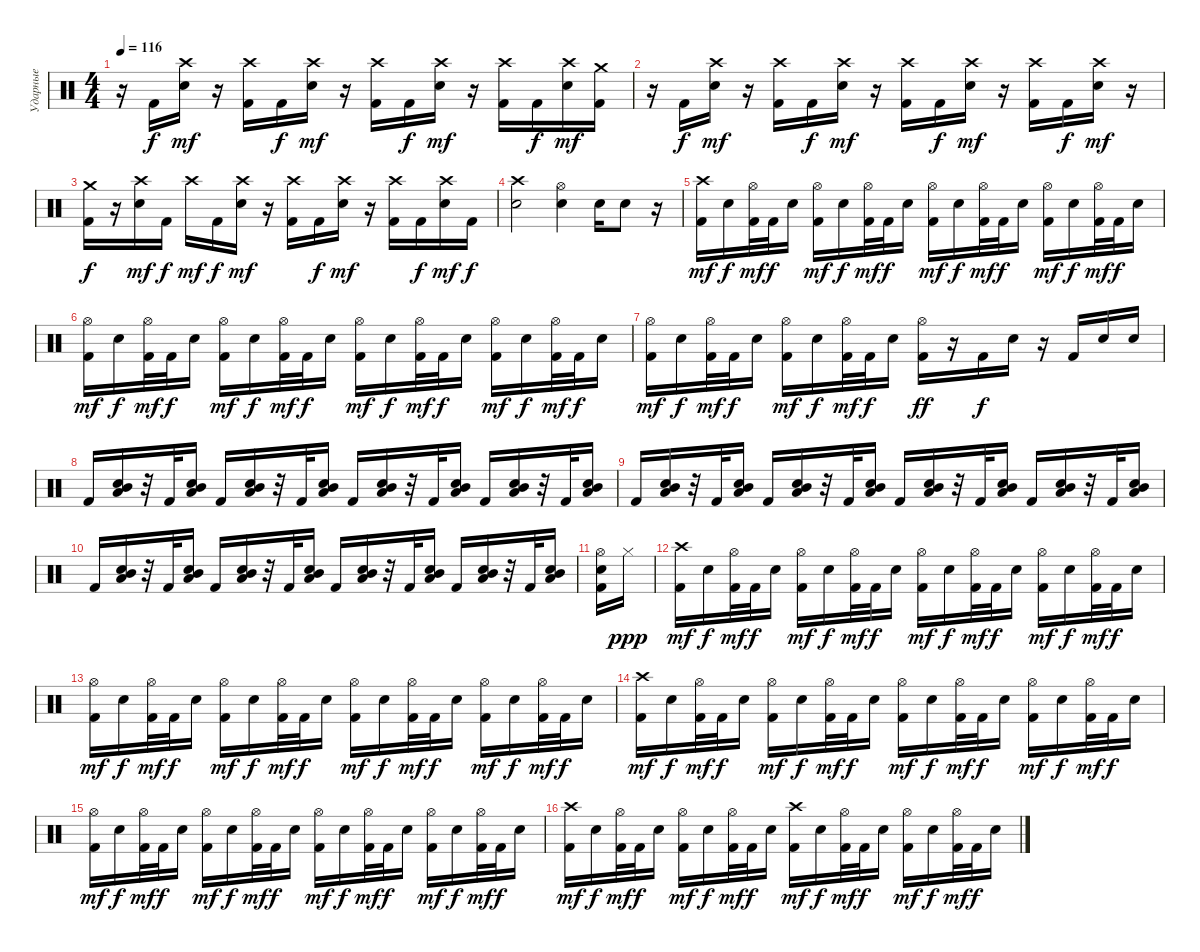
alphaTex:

\track ("Ударные" "Ударные") {instrument percussion}
\staff {score}
\articulation defaults
\ts (4 4)
\tempo 116
\clef neutral
\ks c
r.16{dy mf} "Kick (hit) 2".16{dy f} ("Crash high (hit)" "Electric Snare (hit)").16{dy mf} r.16 ("Crash high (hit)" "Kick (hit) 2").16 "Kick (hit) 2".16{dy f} ("Crash high (hit)" "Electric Snare (hit)").16{dy mf} r.16 ("Crash high (hit)" "Kick (hit) 2").16 "Kick (hit) 2".16{dy f} ("Crash high (hit)" "Electric Snare (hit)").16{dy mf} r.16 ("Crash high (hit)" "Kick (hit) 2").16 "Kick (hit) 2".16{dy f} ("Crash high (hit)" "Electric Snare (hit)").16{dy mf} ("Crash medium (hit)" "Kick (hit) 2").16 |
r.16 "Kick (hit) 2".16{dy f} ("Crash high (hit)" "Electric Snare (hit)").16{dy mf} r.16 ("Crash high (hit)" "Kick (hit) 2").16 "Kick (hit) 2".16{dy f} ("Crash high (hit)" "Electric Snare (hit)").16{dy mf} r.16 ("Crash high (hit)" "Kick (hit) 2").16 "Kick (hit) 2".16{dy f} ("Crash high (hit)" "Electric Snare (hit)").16{dy mf} r.16 ("Crash high (hit)" "Kick (hit) 2").16 "Kick (hit) 2".16{dy f} ("Crash high (hit)" "Electric Snare (hit)").16{dy mf} r.16 |
("Crash medium (hit)" "Kick (hit) 2").16{dy f} r.16 ("Crash high (hit)" "Electric Snare (hit)").16{dy mf} "Kick (hit) 2".16{dy f} "Crash high (hit)".16{dy mf} "Kick (hit) 2".16{dy f} ("Crash high (hit)" "Electric Snare (hit)").16{dy mf} r.16 ("Crash high (hit)" "Kick (hit) 2").16 "Kick (hit) 2".16{dy f} ("Crash high (hit)" "Electric Snare (hit)").16{dy mf} r.16 ("Crash high (hit)" "Kick (hit) 2").16 "Kick (hit) 2".16{dy f} ("Crash high (hit)" "Electric Snare (hit)").16{dy mf} "Kick (hit) 2".16{dy f} |
("Crash high (hit)" "Electric Snare (hit)").2 ("Hi-Hat (open)" "Electric Snare (hit)").4 "Electric Snare (hit)".16 "Electric Snare (hit)".8 r.16 |
("Crash high (hit)" "Kick (hit) 2").16{dy mf} "Electric Snare (hit)".16{dy f} ("Hi-Hat (open)" "Kick (hit) 2").32{dy mf} "Kick (hit) 2".32{dy f} "Electric Snare (hit)".16 ("Hi-Hat (open)" "Kick (hit) 2").16{dy mf} "Electric Snare (hit)".16{dy f} ("Hi-Hat (open)" "Kick (hit) 2").32{dy mf} "Kick (hit) 2".32{dy f} "Electric Snare (hit)".16 ("Hi-Hat (open)" "Kick (hit) 2").16{dy mf} "Electric Snare (hit)".16{dy f} ("Hi-Hat (open)" "Kick (hit) 2").32{dy mf} "Kick (hit) 2".32{dy f} "Electric Snare (hit)".16 ("Hi-Hat (open)" "Kick (hit) 2").16{dy mf} "Electric Snare (hit)".16{dy f} ("Hi-Hat (open)" "Kick (hit) 2").32{dy mf} "Kick (hit) 2".32{dy f} "Electric Snare (hit)".16 |
("Hi-Hat (open)" "Kick (hit) 2").16{dy mf} "Electric Snare (hit)".16{dy f} ("Hi-Hat (open)" "Kick (hit) 2").32{dy mf} "Kick (hit) 2".32{dy f} "Electric Snare (hit)".16 ("Hi-Hat (open)" "Kick (hit) 2").16{dy mf} "Electric Snare (hit)".16{dy f} ("Hi-Hat (open)" "Kick (hit) 2").32{dy mf} "Kick (hit) 2".32{dy f} "Electric Snare (hit)".16 ("Hi-Hat (open)" "Kick (hit) 2").16{dy mf} "Electric Snare (hit)".16{dy f} ("Hi-Hat (open)" "Kick (hit) 2").32{dy mf} "Kick (hit) 2".32{dy f} "Electric Snare (hit)".16 ("Hi-Hat (open)" "Kick (hit) 2").16{dy mf} "Electric Snare (hit)".16{dy f} ("Hi-Hat (open)" "Kick (hit) 2").32{dy mf} "Kick (hit) 2".32{dy f} "Electric Snare (hit)".16 |
("Hi-Hat (open)" "Kick (hit) 2").16{dy mf} "Electric Snare (hit)".16{dy f} ("Hi-Hat (open)" "Kick (hit) 2").32{dy mf} "Kick (hit) 2".32{dy f} "Electric Snare (hit)".16 ("Hi-Hat (open)" "Kick (hit) 2").16{dy mf} "Electric Snare (hit)".16{dy f} ("Hi-Hat (open)" "Kick (hit) 2").32{dy mf} "Kick (hit) 2".32{dy f} "Electric Snare (hit)".16 ("Hi-Hat (open)" "Kick (hit) 2").16{dy ff} r.16 "Kick (hit) 2".16{dy f} "Electric Snare (hit)".16 r.16 "Kick (hit) 2".16 "Electric Snare (hit)".16 "Electric Snare (hit)".16 |
"Kick (hit) 2".16 ("Low Tom (hit)" "Mid Tom (hit)" "Electric Snare (hit)").16 r.32 "Kick (hit) 2".32 ("Low Tom (hit)" "Mid Tom (hit)" "Electric Snare (hit)").16 "Kick (hit) 2".16 ("Low Tom (hit)" "Mid Tom (hit)" "Electric Snare (hit)").16 r.32 "Kick (hit) 2".32 ("Low Tom (hit)" "Mid Tom (hit)" "Electric Snare (hit)").16 "Kick (hit) 2".16 ("Low Tom (hit)" "Mid Tom (hit)" "Electric Snare (hit)").16 r.32 "Kick (hit) 2".32 ("Low Tom (hit)" "Mid Tom (hit)" "Electric Snare (hit)").16 "Kick (hit) 2".16 ("Low Tom (hit)" "Mid Tom (hit)" "Electric Snare (hit)").16 r.32 "Kick (hit) 2".32 ("Low Tom (hit)" "Mid Tom (hit)" "Electric Snare (hit)").16 |
"Kick (hit) 2".16 ("Low Tom (hit)" "Mid Tom (hit)" "Electric Snare (hit)").16 r.32 "Kick (hit) 2".32 ("Low Tom (hit)" "Mid Tom (hit)" "Electric Snare (hit)").16 "Kick (hit) 2".16 ("Low Tom (hit)" "Mid Tom (hit)" "Electric Snare (hit)").16 r.32 "Kick (hit) 2".32 ("Low Tom (hit)" "Mid Tom (hit)" "Electric Snare (hit)").16 "Kick (hit) 2".16 ("Low Tom (hit)" "Mid Tom (hit)" "Electric Snare (hit)").16 r.32 "Kick (hit) 2".32 ("Low Tom (hit)" "Mid Tom (hit)" "Electric Snare (hit)").16 "Kick (hit) 2".16 ("Low Tom (hit)" "Mid Tom (hit)" "Electric Snare (hit)").16 r.32 "Kick (hit) 2".32 ("Low Tom (hit)" "Mid Tom (hit)" "Electric Snare (hit)").16 |
"Kick (hit) 2".16 ("Low Tom (hit)" "Mid Tom (hit)" "Electric Snare (hit)").16 r.32 "Kick (hit) 2".32 ("Low Tom (hit)" "Mid Tom (hit)" "Electric Snare (hit)").16 "Kick (hit) 2".16 ("Low Tom (hit)" "Mid Tom (hit)" "Electric Snare (hit)").16 r.32 "Kick (hit) 2".32 ("Low Tom (hit)" "Mid Tom (hit)" "Electric Snare (hit)").16 "Kick (hit) 2".16 ("Low Tom (hit)" "Mid Tom (hit)" "Electric Snare (hit)").16 r.32 "Kick (hit) 2".32 ("Low Tom (hit)" "Mid Tom (hit)" "Electric Snare (hit)").16 "Kick (hit) 2".16 ("Low Tom (hit)" "Mid Tom (hit)" "Electric Snare (hit)").16 r.32 "Kick (hit) 2".32 ("Low Tom (hit)" "Mid Tom (hit)" "Electric Snare (hit)").16 |
("Hi-Hat (open)" "Electric Snare (hit)" "Kick (hit) 2").16 "Hi-Hat (closed)".16{dy ppp} |
("Crash high (hit)" "Kick (hit) 2").16{dy mf} "Electric Snare (hit)".16{dy f} ("Hi-Hat (open)" "Kick (hit) 2").32{dy mf} "Kick (hit) 2".32{dy f} "Electric Snare (hit)".16 ("Hi-Hat (open)" "Kick (hit) 2").16{dy mf} "Electric Snare (hit)".16{dy f} ("Hi-Hat (open)" "Kick (hit) 2").32{dy mf} "Kick (hit) 2".32{dy f} "Electric Snare (hit)".16 ("Hi-Hat (open)" "Kick (hit) 2").16{dy mf} "Electric Snare (hit)".16{dy f} ("Hi-Hat (open)" "Kick (hit) 2").32{dy mf} "Kick (hit) 2".32{dy f} "Electric Snare (hit)".16 ("Hi-Hat (open)" "Kick (hit) 2").16{dy mf} "Electric Snare (hit)".16{dy f} ("Hi-Hat (open)" "Kick (hit) 2").32{dy mf} "Kick (hit) 2".32{dy f} "Electric Snare (hit)".16 |
("Hi-Hat (open)" "Kick (hit) 2").16{dy mf} "Electric Snare (hit)".16{dy f} ("Hi-Hat (open)" "Kick (hit) 2").32{dy mf} "Kick (hit) 2".32{dy f} "Electric Snare (hit)".16 ("Hi-Hat (open)" "Kick (hit) 2").16{dy mf} "Electric Snare (hit)".16{dy f} ("Hi-Hat (open)" "Kick (hit) 2").32{dy mf} "Kick (hit) 2".32{dy f} "Electric Snare (hit)".16 ("Hi-Hat (open)" "Kick (hit) 2").16{dy mf} "Electric Snare (hit)".16{dy f} ("Hi-Hat (open)" "Kick (hit) 2").32{dy mf} "Kick (hit) 2".32{dy f} "Electric Snare (hit)".16 ("Hi-Hat (open)" "Kick (hit) 2").16{dy mf} "Electric Snare (hit)".16{dy f} ("Hi-Hat (open)" "Kick (hit) 2").32{dy mf} "Kick (hit) 2".32{dy f} "Electric Snare (hit)".16 |
("Crash high (hit)" "Kick (hit) 2").16{dy mf} "Electric Snare (hit)".16{dy f} ("Hi-Hat (open)" "Kick (hit) 2").32{dy mf} "Kick (hit) 2".32{dy f} "Electric Snare (hit)".16 ("Hi-Hat (open)" "Kick (hit) 2").16{dy mf} "Electric Snare (hit)".16{dy f} ("Hi-Hat (open)" "Kick (hit) 2").32{dy mf} "Kick (hit) 2".32{dy f} "Electric Snare (hit)".16 ("Hi-Hat (open)" "Kick (hit) 2").16{dy mf} "Electric Snare (hit)".16{dy f} ("Hi-Hat (open)" "Kick (hit) 2").32{dy mf} "Kick (hit) 2".32{dy f} "Electric Snare (hit)".16 ("Hi-Hat (open)" "Kick (hit) 2").16{dy mf} "Electric Snare (hit)".16{dy f} ("Hi-Hat (open)" "Kick (hit) 2").32{dy mf} "Kick (hit) 2".32{dy f} "Electric Snare (hit)".16 |
("Hi-Hat (open)" "Kick (hit) 2").16{dy mf} "Electric Snare (hit)".16{dy f} ("Hi-Hat (open)" "Kick (hit) 2").32{dy mf} "Kick (hit) 2".32{dy f} "Electric Snare (hit)".16 ("Hi-Hat (open)" "Kick (hit) 2").16{dy mf} "Electric Snare (hit)".16{dy f} ("Hi-Hat (open)" "Kick (hit) 2").32{dy mf} "Kick (hit) 2".32{dy f} "Electric Snare (hit)".16 ("Hi-Hat (open)" "Kick (hit) 2").16{dy mf} "Electric Snare (hit)".16{dy f} ("Hi-Hat (open)" "Kick (hit) 2").32{dy mf} "Kick (hit) 2".32{dy f} "Electric Snare (hit)".16 ("Hi-Hat (open)" "Kick (hit) 2").16{dy mf} "Electric Snare (hit)".16{dy f} ("Hi-Hat (open)" "Kick (hit) 2").32{dy mf} "Kick (hit) 2".32{dy f} "Electric Snare (hit)".16 |
("Crash high (hit)" "Kick (hit) 2").16{dy mf} "Electric Snare (hit)".16{dy f} ("Hi-Hat (open)" "Kick (hit) 2").32{dy mf} "Kick (hit) 2".32{dy f} "Electric Snare (hit)".16 ("Hi-Hat (open)" "Kick (hit) 2").16{dy mf} "Electric Snare (hit)".16{dy f} ("Hi-Hat (open)" "Kick (hit) 2").32{dy mf} "Kick (hit) 2".32{dy f} "Electric Snare (hit)".16 ("Crash high (hit)" "Kick (hit) 2").16{dy mf} "Electric Snare (hit)".16{dy f} ("Hi-Hat (open)" "Kick (hit) 2").32{dy mf} "Kick (hit) 2".32{dy f} "Electric Snare (hit)".16 ("Hi-Hat (open)" "Kick (hit) 2").16{dy mf} "Electric Snare (hit)".16{dy f} ("Hi-Hat (open)" "Kick (hit) 2").32{dy mf} "Kick (hit) 2".32{dy f} "Electric Snare (hit)".16
